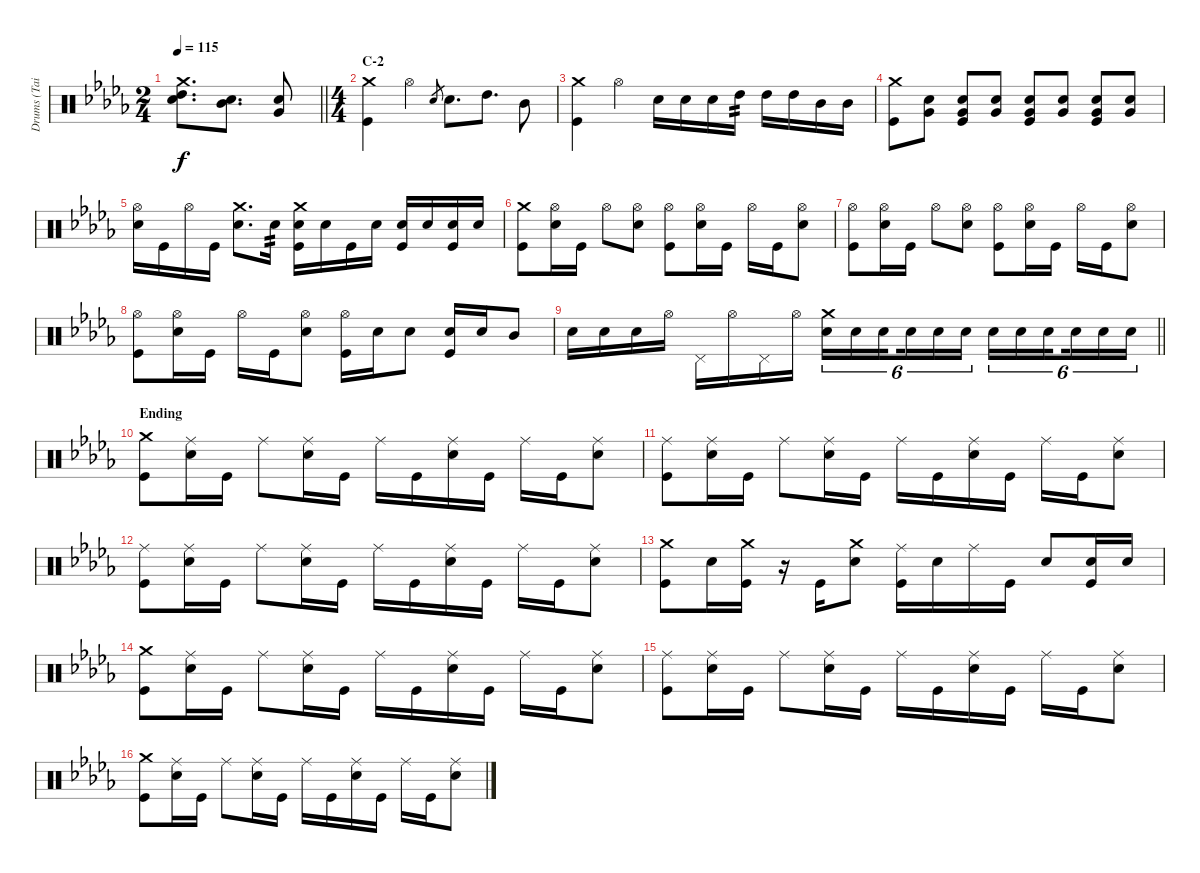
\track ("Drums (Tainaka Ritsu)" "Drums (Tai") {instrument percussion}
\staff {score}
\articulation defaults
\ts (2 4)
\tempo 115
\clef neutral
\barLineRight lightlight
\ks db
("Crash medium (hit)" "Snare (hit) 2" "High Tom (hit)").8{d dy f} ("Snare (hit) 2" "Mid Tom (hit)").8{d} ("Snare (hit) 2" "Very Low Tom (hit)").8 |
\ts (4 4)
\section ("" "C-2")
("Crash medium (hit)" "Kick (hit)").4 "Hi-Hat (open)".4 "Snare (hit) 2".8{gr} "Snare (hit) 2".8{d} "High Tom (hit)".8{d} "Mid Tom (hit)".8 |
("Crash medium (hit)" "Kick (hit)").4 "Hi-Hat (open)".4 "Snare (hit) 2".16 "Snare (hit) 2".16 "Snare (hit) 2".16 "High Tom (hit)".16{tp 2} "High Tom (hit)".16 "High Tom (hit)".16 "Mid Tom (hit)".16 "Mid Tom (hit)".16 |
("Crash medium (hit)" "Kick (hit)").8 ("Snare (hit) 2" "Very Low Tom (hit)").8 ("Snare (hit) 2" "Very Low Tom (hit)" "Kick (hit)").8 ("Snare (hit) 2" "Very Low Tom (hit)").8 ("Snare (hit) 2" "Very Low Tom (hit)" "Kick (hit)").8 ("Snare (hit) 2" "Very Low Tom (hit)").8 ("Snare (hit) 2" "Very Low Tom (hit)" "Kick (hit)").8 ("Snare (hit) 2" "Very Low Tom (hit)").8 |
("Hi-Hat (open)" "Snare (hit) 2").16 "Kick (hit)".16 "Hi-Hat (open)".16 "Kick (hit)".16 ("Crash medium (hit)" "Snare (hit) 2").8{d} "Snare (hit) 2".16{tp 2} ("Crash medium (hit)" "Snare (hit) 2" "Kick (hit)").16 "Snare (hit) 2".16 "Kick (hit)".16 "Snare (hit) 2".16 ("Snare (hit) 2" "Kick (hit)").16 "Snare (hit) 2".16 ("Snare (hit) 2" "Kick (hit)").16 "Snare (hit) 2".16 |
("Crash medium (hit)" "Kick (hit)").8 ("Hi-Hat (open)" "Snare (hit) 2").16 "Kick (hit)".16 "Hi-Hat (open)".8 ("Hi-Hat (open)" "Snare (hit) 2").8 ("Hi-Hat (open)" "Kick (hit)").8 ("Hi-Hat (open)" "Snare (hit) 2").16 "Kick (hit)".16 "Hi-Hat (open)".16 "Kick (hit)".16 ("Hi-Hat (open)" "Snare (hit) 2").8 |
("Hi-Hat (open)" "Kick (hit)").8 ("Hi-Hat (open)" "Snare (hit) 2").16 "Kick (hit)".16 "Hi-Hat (open)".8 ("Hi-Hat (open)" "Snare (hit) 2").8 ("Hi-Hat (open)" "Kick (hit)").8 ("Hi-Hat (open)" "Snare (hit) 2").16 "Kick (hit)".16 "Hi-Hat (open)".16 "Kick (hit)".16 ("Hi-Hat (open)" "Snare (hit) 2").8 |
("Hi-Hat (open)" "Kick (hit)").8 ("Hi-Hat (open)" "Snare (hit) 2").16 "Kick (hit)".16 "Hi-Hat (open)".16 "Kick (hit)".16 ("Hi-Hat (open)" "Snare (hit) 2").8 ("Hi-Hat (open)" "Kick (hit)").16 "Snare (hit) 2".16 "Snare (hit) 2".8 ("Snare (hit) 2" "Kick (hit)").16 "Snare (hit) 2".16 "Mid Tom (hit)".8 |
\barLineRight lightlight "Snare (hit) 2".16 "Snare (hit) 2".16 "Snare (hit) 2".16 "Hi-Hat (open)".16 "Pedal Hi-Hat (hit)".16 "Hi-Hat (open)".16 "Pedal Hi-Hat (hit)".16 "Hi-Hat (open)".16
("Crash medium (hit)" "Snare (hit) 2").16{tu (6 4)} "Snare (hit) 2".16{tu (6 4)} "Snare (hit) 2".16{tu (6 4) beam splitsecondary} "Snare (hit) 2".16{tu (6 4)} "Snare (hit) 2".16{tu (6 4)} "Snare (hit) 2".16{tu (6 4)} "Snare (hit) 2".16{tu (6 4)} "Snare (hit) 2".16{tu (6 4)} "Snare (hit) 2".16{tu (6 4) beam splitsecondary} "Snare (hit) 2".16{tu (6 4)} "Snare (hit) 2".16{tu (6 4)} "Snare (hit) 2".16{tu (6 4)} |
\section ("" "Ending")
("Crash medium (hit)" "Kick (hit)").8 ("Ride (middle)" "Snare (hit) 2").16 "Kick (hit)".16 "Ride (middle)".8 ("Ride (middle)" "Snare (hit) 2").16 "Kick (hit)".16 "Ride (middle)".16 "Kick (hit)".16 ("Ride (middle)" "Snare (hit) 2").16 "Kick (hit)".16 "Ride (middle)".16 "Kick (hit)".16 ("Ride (middle)" "Snare (hit) 2").8 |
("Ride (middle)" "Kick (hit)").8 ("Ride (middle)" "Snare (hit) 2").16 "Kick (hit)".16 "Ride (middle)".8 ("Ride (middle)" "Snare (hit) 2").16 "Kick (hit)".16 "Ride (middle)".16 "Kick (hit)".16 ("Ride (middle)" "Snare (hit) 2").16 "Kick (hit)".16 "Ride (middle)".16 "Kick (hit)".16 ("Ride (middle)" "Snare (hit) 2").8 |
("Ride (middle)" "Kick (hit)").8 ("Ride (middle)" "Snare (hit) 2").16 "Kick (hit)".16 "Ride (middle)".8 ("Ride (middle)" "Snare (hit) 2").16 "Kick (hit)".16 "Ride (middle)".16 "Kick (hit)".16 ("Ride (middle)" "Snare (hit) 2").16 "Kick (hit)".16 "Ride (middle)".16 "Kick (hit)".16 ("Ride (middle)" "Snare (hit) 2").8 |
("Crash medium (hit)" "Kick (hit)").8 "Snare (hit) 2".16 ("Crash medium (hit)" "Kick (hit)").16 r.16 "Kick (hit)".16 ("Crash medium (hit)" "Snare (hit) 2").8 ("Ride (middle)" "Kick (hit)").16 "Snare (hit) 2".16 "Ride (middle)".16 "Kick (hit)".16 "Snare (hit) 2".8 ("Snare (hit) 2" "Kick (hit)").16 "Snare (hit) 2".16 |
("Crash medium (hit)" "Kick (hit)").8 ("Ride (middle)" "Snare (hit) 2").16 "Kick (hit)".16 "Ride (middle)".8 ("Ride (middle)" "Snare (hit) 2").16 "Kick (hit)".16 "Ride (middle)".16 "Kick (hit)".16 ("Ride (middle)" "Snare (hit) 2").16 "Kick (hit)".16 "Ride (middle)".16 "Kick (hit)".16 ("Ride (middle)" "Snare (hit) 2").8 |
("Ride (middle)" "Kick (hit)").8 ("Ride (middle)" "Snare (hit) 2").16 "Kick (hit)".16 "Ride (middle)".8 ("Ride (middle)" "Snare (hit) 2").16 "Kick (hit)".16 "Ride (middle)".16 "Kick (hit)".16 ("Ride (middle)" "Snare (hit) 2").16 "Kick (hit)".16 "Ride (middle)".16 "Kick (hit)".16 ("Ride (middle)" "Snare (hit) 2").8 |
("Crash medium (hit)" "Kick (hit)").8 ("Ride (middle)" "Snare (hit) 2").16 "Kick (hit)".16 "Ride (middle)".8 ("Ride (middle)" "Snare (hit) 2").16 "Kick (hit)".16 "Ride (middle)".16 "Kick (hit)".16 ("Ride (middle)" "Snare (hit) 2").16 "Kick (hit)".16 "Ride (middle)".16 "Kick (hit)".16 ("Ride (middle)" "Snare (hit) 2").8
